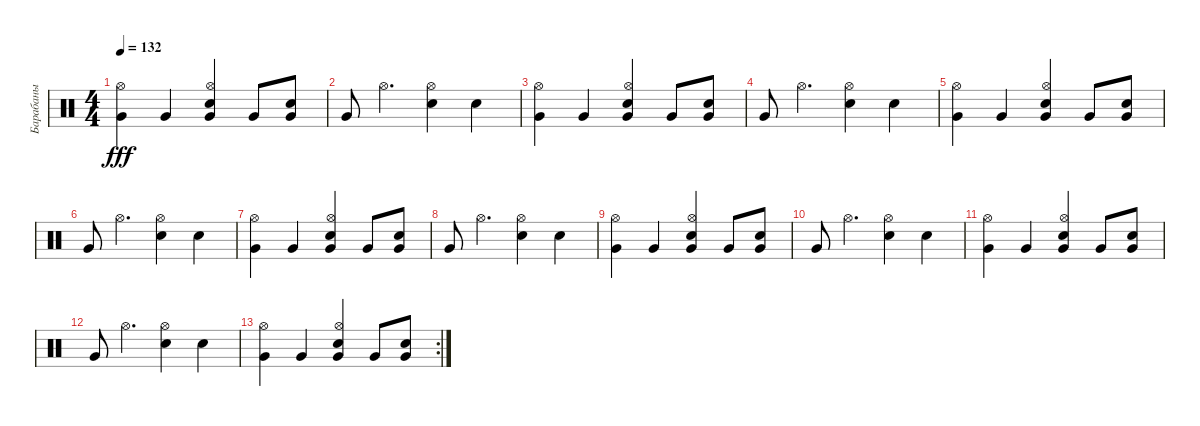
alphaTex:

\track ("Барабаны" "Барабаны") {instrument percussion}
\staff {score}
\articulation defaults
\ts (4 4)
\tempo 132
\clef neutral
\ks c
("Very Low Tom (hit)" "Hi-Hat (open)").4{dy fff} "Very Low Tom (hit)".4 ("Electric Snare (hit)" "Very Low Tom (hit)" "Hi-Hat (open)").4 "Very Low Tom (hit)".8 ("Electric Snare (hit)" "Very Low Tom (hit)").8 |
"Very Low Tom (hit)".8 "Hi-Hat (open)".4{d} ("Hi-Hat (open)" "Snare (hit) 2").4 "Snare (hit) 2".4 |
("Very Low Tom (hit)" "Hi-Hat (open)").4 "Very Low Tom (hit)".4 ("Electric Snare (hit)" "Very Low Tom (hit)" "Hi-Hat (open)").4 "Very Low Tom (hit)".8 ("Electric Snare (hit)" "Very Low Tom (hit)").8 |
"Very Low Tom (hit)".8 "Hi-Hat (open)".4{d} ("Hi-Hat (open)" "Snare (hit) 2").4 "Snare (hit) 2".4 |
("Very Low Tom (hit)" "Hi-Hat (open)").4 "Very Low Tom (hit)".4 ("Electric Snare (hit)" "Very Low Tom (hit)" "Hi-Hat (open)").4 "Very Low Tom (hit)".8 ("Electric Snare (hit)" "Very Low Tom (hit)").8 |
"Very Low Tom (hit)".8 "Hi-Hat (open)".4{d} ("Hi-Hat (open)" "Snare (hit) 2").4 "Snare (hit) 2".4 |
("Very Low Tom (hit)" "Hi-Hat (open)").4 "Very Low Tom (hit)".4 ("Electric Snare (hit)" "Very Low Tom (hit)" "Hi-Hat (open)").4 "Very Low Tom (hit)".8 ("Electric Snare (hit)" "Very Low Tom (hit)").8 |
"Very Low Tom (hit)".8 "Hi-Hat (open)".4{d} ("Hi-Hat (open)" "Snare (hit) 2").4 "Snare (hit) 2".4 |
("Very Low Tom (hit)" "Hi-Hat (open)").4 "Very Low Tom (hit)".4 ("Electric Snare (hit)" "Very Low Tom (hit)" "Hi-Hat (open)").4 "Very Low Tom (hit)".8 ("Electric Snare (hit)" "Very Low Tom (hit)").8 |
"Very Low Tom (hit)".8 "Hi-Hat (open)".4{d} ("Hi-Hat (open)" "Snare (hit) 2").4 "Snare (hit) 2".4 |
("Very Low Tom (hit)" "Hi-Hat (open)").4 "Very Low Tom (hit)".4 ("Electric Snare (hit)" "Very Low Tom (hit)" "Hi-Hat (open)").4 "Very Low Tom (hit)".8 ("Electric Snare (hit)" "Very Low Tom (hit)").8 |
"Very Low Tom (hit)".8 "Hi-Hat (open)".4{d} ("Hi-Hat (open)" "Snare (hit) 2").4 "Snare (hit) 2".4 |
\rc 2
("Very Low Tom (hit)" "Hi-Hat (open)").4 "Very Low Tom (hit)".4 ("Electric Snare (hit)" "Very Low Tom (hit)" "Hi-Hat (open)").4 "Very Low Tom (hit)".8 ("Electric Snare (hit)" "Very Low Tom (hit)").8
